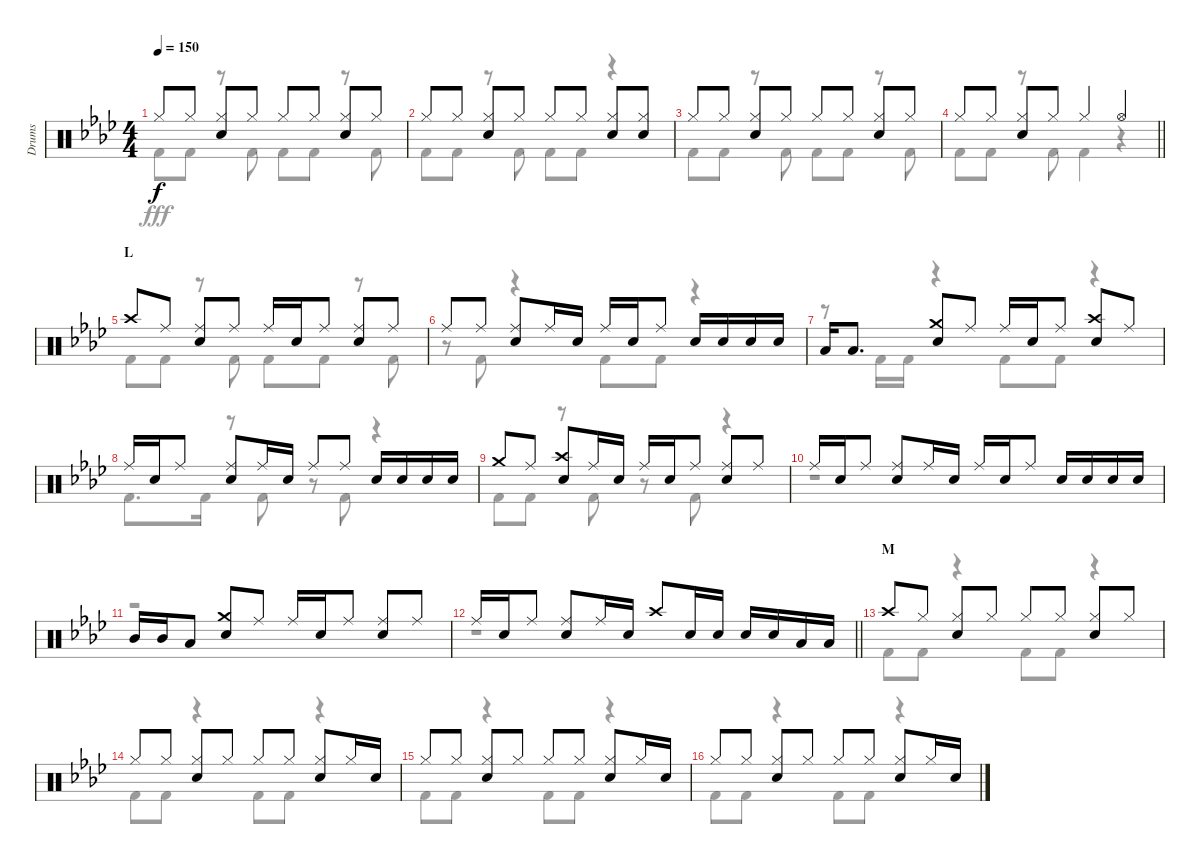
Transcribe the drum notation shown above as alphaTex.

\track ("Drums" "Drums") {instrument percussion}
\staff {score}
\articulation defaults
\voice
\ts (4 4)
\tempo 150
\clef neutral
\ks ab "Hi-Hat (closed)".8{dy f} "Hi-Hat (closed)".8
("Hi-Hat (closed)" "Snare (hit) 2").8 "Hi-Hat (closed)".8 "Hi-Hat (closed)".8 "Hi-Hat (closed)".8 ("Hi-Hat (closed)" "Snare (hit) 2").8 "Hi-Hat (closed)".8 |
"Hi-Hat (closed)".8 "Hi-Hat (closed)".8 ("Hi-Hat (closed)" "Snare (hit) 2").8 "Hi-Hat (closed)".8 "Hi-Hat (closed)".8 "Hi-Hat (closed)".8 ("Hi-Hat (closed)" "Snare (hit) 2").8 ("Hi-Hat (closed)" "Snare (hit) 2").8 |
"Hi-Hat (closed)".8 "Hi-Hat (closed)".8 ("Hi-Hat (closed)" "Snare (hit) 2").8 "Hi-Hat (closed)".8 "Hi-Hat (closed)".8 "Hi-Hat (closed)".8 ("Hi-Hat (closed)" "Snare (hit) 2").8 "Hi-Hat (closed)".8 |
\barLineRight lightlight "Hi-Hat (closed)".8 "Hi-Hat (closed)".8
("Hi-Hat (closed)" "Snare (hit) 2").8 "Hi-Hat (closed)".8 "Hi-Hat (closed)".4 "Hi-Hat (open)".4 |
\section ("" "L")
"Crash high (hit)".8 "Ride (middle)".8 ("Ride (middle)" "Snare (hit) 2").8 "Ride (middle)".8 "Ride (middle)".16 "Snare (hit) 2".16 "Ride (middle)".8 ("Ride (middle)" "Snare (hit) 2").8 "Ride (middle)".8 |
"Ride (middle)".8 "Ride (middle)".8 ("Ride (middle)" "Snare (hit) 2").8 "Ride (middle)".16 "Snare (hit) 2".16 "Ride (middle)".16 "Snare (hit) 2".16 "Ride (middle)".8 "Snare (hit) 2".16 "Snare (hit) 2".16 "Snare (hit) 2".16 "Snare (hit) 2".16 |
"Low Tom (hit)".16 "Low Tom (hit)".8{d} ("Crash medium (hit)" "Snare (hit) 2").8 "Ride (middle)".8 "Ride (middle)".16 "Snare (hit) 2".16 "Ride (middle)".8 ("Crash high (hit)" "Snare (hit) 2").8 "Ride (middle)".8 |
"Ride (middle)".16 "Snare (hit) 2".16 "Ride (middle)".8 ("Ride (middle)" "Snare (hit) 2").8 "Ride (middle)".16 "Snare (hit) 2".16 "Ride (middle)".8 "Ride (middle)".8 "Snare (hit) 2".16 "Snare (hit) 2".16 "Snare (hit) 2".16 "Snare (hit) 2".16 |
"Crash medium (hit)".8 "Ride (middle)".8 ("Crash high (hit)" "Snare (hit) 2").8 "Ride (middle)".16 "Snare (hit) 2".16 "Ride (middle)".16 "Snare (hit) 2".16 "Ride (middle)".8 ("Ride (middle)" "Snare (hit) 2").8 "Ride (middle)".8 |
"Ride (middle)".16 "Snare (hit) 2".16 "Ride (middle)".8 ("Ride (middle)" "Snare (hit) 2").8 "Ride (middle)".16 "Snare (hit) 2".16 "Ride (middle)".16 "Snare (hit) 2".16 "Ride (middle)".8 "Snare (hit) 2".16 "Snare (hit) 2".16 "Snare (hit) 2".16 "Snare (hit) 2".16 |
"Mid Tom (hit)".16 "Mid Tom (hit)".16 "Low Tom (hit)".8 ("Crash medium (hit)" "Snare (hit) 2").8 "Ride (middle)".8 "Ride (middle)".16 "Snare (hit) 2".16 "Ride (middle)".8 ("Ride (middle)" "Snare (hit) 2").8 "Ride (middle)".8 |
\barLineRight lightlight "Ride (middle)".16 "Snare (hit) 2".16 "Ride (middle)".8
("Ride (middle)" "Snare (hit) 2").8 "Ride (middle)".16 "Snare (hit) 2".16 "Crash high (hit)".8 "Snare (hit) 2".16 "Snare (hit) 2".16 "Snare (hit) 2".16 "Snare (hit) 2".16 "Low Tom (hit)".16 "Low Tom (hit)".16 |
\section ("" "M")
"Crash high (hit)".8 "Hi-Hat (closed)".8 ("Hi-Hat (closed)" "Snare (hit) 2").8 "Hi-Hat (closed)".8 "Hi-Hat (closed)".8 "Hi-Hat (closed)".8 ("Hi-Hat (closed)" "Snare (hit) 2").8 "Hi-Hat (closed)".8 |
"Hi-Hat (closed)".8 "Hi-Hat (closed)".8 ("Hi-Hat (closed)" "Snare (hit) 2").8 "Hi-Hat (closed)".8 "Hi-Hat (closed)".8 "Hi-Hat (closed)".8 ("Hi-Hat (closed)" "Snare (hit) 2").8 "Hi-Hat (closed)".16 "Snare (hit) 2".16 |
"Hi-Hat (closed)".8 "Hi-Hat (closed)".8 ("Hi-Hat (closed)" "Snare (hit) 2").8 "Hi-Hat (closed)".8 "Hi-Hat (closed)".8 "Hi-Hat (closed)".8 ("Hi-Hat (closed)" "Snare (hit) 2").8 "Hi-Hat (closed)".16 "Snare (hit) 2".16 |
"Hi-Hat (closed)".8 "Hi-Hat (closed)".8 ("Hi-Hat (closed)" "Snare (hit) 2").8 "Hi-Hat (closed)".8 "Hi-Hat (closed)".8 "Hi-Hat (closed)".8 ("Hi-Hat (closed)" "Snare (hit) 2").8 "Hi-Hat (closed)".16 "Snare (hit) 2".16
\voice
\clef neutral
\ottava regular
\simile none
\ks ab "Kick (hit) 2".8{dy fff} "Kick (hit) 2".8
r.8 "Kick (hit) 2".8 "Kick (hit) 2".8 "Kick (hit) 2".8 r.8 "Kick (hit) 2".8 |
"Kick (hit) 2".8 "Kick (hit) 2".8 r.8 "Kick (hit) 2".8 "Kick (hit) 2".8 "Kick (hit) 2".8 r.4 |
"Kick (hit) 2".8 "Kick (hit) 2".8 r.8 "Kick (hit) 2".8 "Kick (hit) 2".8 "Kick (hit) 2".8 r.8 "Kick (hit) 2".8 |
\barLineRight lightlight "Kick (hit) 2".8 "Kick (hit) 2".8
r.8 "Kick (hit) 2".8 "Kick (hit) 2".4 r.4 |
"Kick (hit) 2".8 "Kick (hit) 2".8 r.8 "Kick (hit) 2".8 "Kick (hit) 2".8 "Kick (hit) 2".8 r.8 "Kick (hit) 2".8 |
r.8 "Kick (hit) 2".8 r.4 "Kick (hit) 2".8 "Kick (hit) 2".8 r.4 |
r.8 "Kick (hit) 2".16 "Kick (hit) 2".16 r.4 "Kick (hit) 2".8 "Kick (hit) 2".8 r.4 |
"Kick (hit) 2".8{d} "Kick (hit) 2".16 r.8 "Kick (hit) 2".8 r.8 "Kick (hit) 2".8 r.4 |
"Kick (hit) 2".8 "Kick (hit) 2".8 r.8 "Kick (hit) 2".8 r.8 "Kick (hit) 2".8 r.4 |
r.1 |
r.1 |
\barLineRight lightlight
r.1 |
"Kick (hit) 2".8 "Kick (hit) 2".8 r.4 "Kick (hit) 2".8 "Kick (hit) 2".8 r.4 |
"Kick (hit) 2".8 "Kick (hit) 2".8 r.4 "Kick (hit) 2".8 "Kick (hit) 2".8 r.4 |
"Kick (hit) 2".8 "Kick (hit) 2".8 r.4 "Kick (hit) 2".8 "Kick (hit) 2".8 r.4 |
"Kick (hit) 2".8 "Kick (hit) 2".8 r.4 "Kick (hit) 2".8 "Kick (hit) 2".8 r.4
